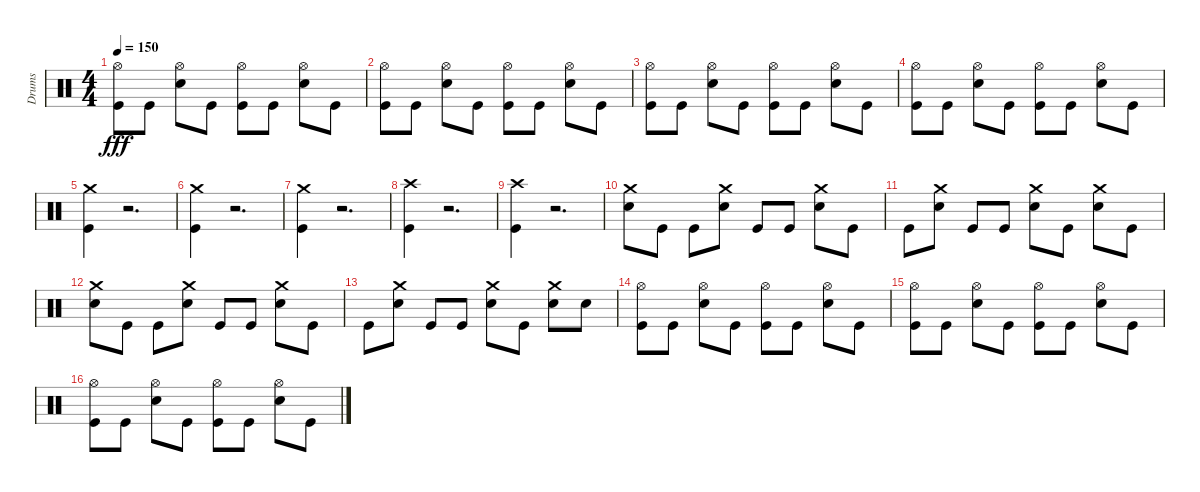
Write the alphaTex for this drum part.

\track ("Drums" "Drums") {instrument percussion}
\staff {score}
\articulation defaults
\ts (4 4)
\tempo 150
\clef neutral
\ks c
("Hi-Hat (open)" "Kick (hit)").8{dy fff} "Kick (hit)".8 ("Hi-Hat (open)" "Snare (hit) 2").8 "Kick (hit)".8 ("Hi-Hat (open)" "Kick (hit)").8 "Kick (hit)".8 ("Hi-Hat (open)" "Snare (hit) 2").8 "Kick (hit)".8 |
("Hi-Hat (open)" "Kick (hit)").8 "Kick (hit)".8 ("Hi-Hat (open)" "Snare (hit) 2").8 "Kick (hit)".8 ("Hi-Hat (open)" "Kick (hit)").8 "Kick (hit)".8 ("Hi-Hat (open)" "Snare (hit) 2").8 "Kick (hit)".8 |
("Hi-Hat (open)" "Kick (hit)").8 "Kick (hit)".8 ("Hi-Hat (open)" "Snare (hit) 2").8 "Kick (hit)".8 ("Hi-Hat (open)" "Kick (hit)").8 "Kick (hit)".8 ("Hi-Hat (open)" "Snare (hit) 2").8 "Kick (hit)".8 |
("Hi-Hat (open)" "Kick (hit)").8 "Kick (hit)".8 ("Hi-Hat (open)" "Snare (hit) 2").8 "Kick (hit)".8 ("Hi-Hat (open)" "Kick (hit)").8 "Kick (hit)".8 ("Hi-Hat (open)" "Snare (hit) 2").8 "Kick (hit)".8 |
("Kick (hit)" "Crash medium (hit)").4 r.2{d} |
("Kick (hit)" "Crash medium (hit)").4 r.2{d} |
("Kick (hit)" "Crash medium (hit)").4 r.2{d} |
("Kick (hit)" "Crash high (hit)").4 r.2{d} |
("Kick (hit)" "Crash high (hit)").4 r.2{d} |
("Crash medium (hit)" "Snare (hit) 2").8 "Kick (hit)".8 "Kick (hit)".8 ("Crash medium (hit)" "Snare (hit) 2").8 "Kick (hit)".8 "Kick (hit)".8 ("Crash medium (hit)" "Snare (hit) 2").8 "Kick (hit)".8 |
"Kick (hit)".8 ("Crash medium (hit)" "Snare (hit) 2").8 "Kick (hit)".8 "Kick (hit)".8 ("Crash medium (hit)" "Snare (hit) 2").8 "Kick (hit)".8 ("Crash medium (hit)" "Snare (hit) 2").8 "Kick (hit)".8 |
("Crash medium (hit)" "Snare (hit) 2").8 "Kick (hit)".8 "Kick (hit)".8 ("Crash medium (hit)" "Snare (hit) 2").8 "Kick (hit)".8 "Kick (hit)".8 ("Crash medium (hit)" "Snare (hit) 2").8 "Kick (hit)".8 |
"Kick (hit)".8 ("Crash medium (hit)" "Snare (hit) 2").8 "Kick (hit)".8 "Kick (hit)".8 ("Crash medium (hit)" "Snare (hit) 2").8 "Kick (hit)".8 ("Crash medium (hit)" "Snare (hit) 2").8 "Snare (hit) 2".8 |
("Hi-Hat (open)" "Kick (hit)").8 "Kick (hit)".8 ("Hi-Hat (open)" "Snare (hit) 2").8 "Kick (hit)".8 ("Hi-Hat (open)" "Kick (hit)").8 "Kick (hit)".8 ("Hi-Hat (open)" "Snare (hit) 2").8 "Kick (hit)".8 |
("Hi-Hat (open)" "Kick (hit)").8 "Kick (hit)".8 ("Hi-Hat (open)" "Snare (hit) 2").8 "Kick (hit)".8 ("Hi-Hat (open)" "Kick (hit)").8 "Kick (hit)".8 ("Hi-Hat (open)" "Snare (hit) 2").8 "Kick (hit)".8 |
("Hi-Hat (open)" "Kick (hit)").8 "Kick (hit)".8 ("Hi-Hat (open)" "Snare (hit) 2").8 "Kick (hit)".8 ("Hi-Hat (open)" "Kick (hit)").8 "Kick (hit)".8 ("Hi-Hat (open)" "Snare (hit) 2").8 "Kick (hit)".8
